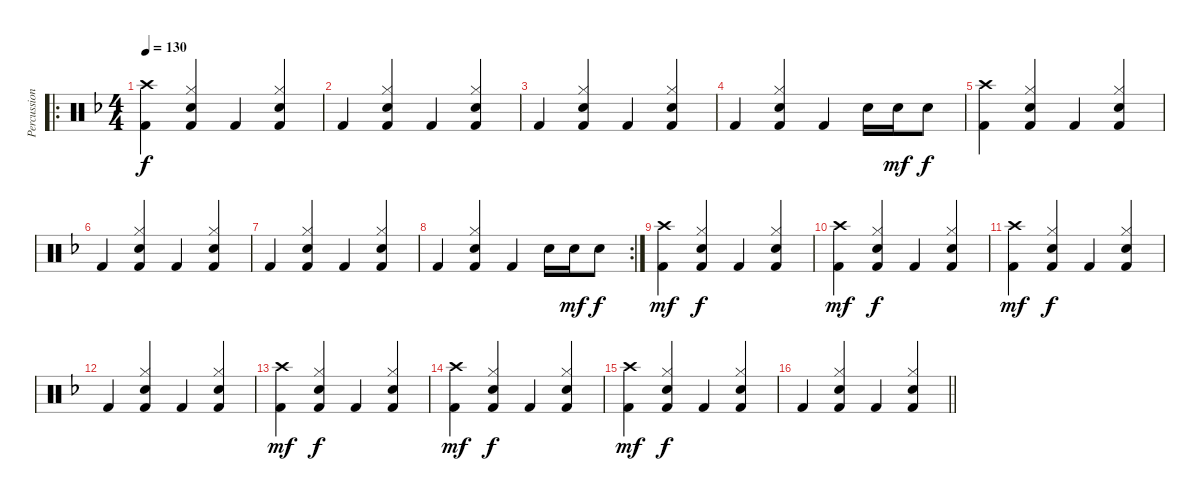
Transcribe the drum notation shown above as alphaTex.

\track ("Percussion" "Percussion") {instrument percussion}
\staff {score}
\articulation defaults
\ro
\ts (4 4)
\tempo 130
\clef neutral
\ks f
("Crash high (hit)" "Kick (hit) 2").4{dy f} ("Hi-Hat (closed)" "Snare (hit) 2" "Kick (hit) 2").4 "Kick (hit) 2".4 ("Hi-Hat (closed)" "Snare (hit) 2" "Kick (hit) 2").4 |
"Kick (hit) 2".4 ("Hi-Hat (closed)" "Snare (hit) 2" "Kick (hit) 2").4 "Kick (hit) 2".4 ("Hi-Hat (closed)" "Snare (hit) 2" "Kick (hit) 2").4 |
"Kick (hit) 2".4 ("Hi-Hat (closed)" "Snare (hit) 2" "Kick (hit) 2").4 "Kick (hit) 2".4 ("Hi-Hat (closed)" "Snare (hit) 2" "Kick (hit) 2").4 |
"Kick (hit) 2".4 ("Hi-Hat (closed)" "Snare (hit) 2" "Kick (hit) 2").4 "Kick (hit) 2".4 "Snare (hit) 2".16 "Snare (hit) 2".16{dy mf} "Snare (hit) 2".8{dy f} |
("Crash high (hit)" "Kick (hit) 2").4 ("Hi-Hat (closed)" "Snare (hit) 2" "Kick (hit) 2").4 "Kick (hit) 2".4 ("Hi-Hat (closed)" "Snare (hit) 2" "Kick (hit) 2").4 |
"Kick (hit) 2".4 ("Hi-Hat (closed)" "Snare (hit) 2" "Kick (hit) 2").4 "Kick (hit) 2".4 ("Hi-Hat (closed)" "Snare (hit) 2" "Kick (hit) 2").4 |
"Kick (hit) 2".4 ("Hi-Hat (closed)" "Snare (hit) 2" "Kick (hit) 2").4 "Kick (hit) 2".4 ("Hi-Hat (closed)" "Snare (hit) 2" "Kick (hit) 2").4 |
\rc 2 "Kick (hit) 2".4
("Hi-Hat (closed)" "Snare (hit) 2" "Kick (hit) 2").4 "Kick (hit) 2".4 "Snare (hit) 2".16 "Snare (hit) 2".16{dy mf} "Snare (hit) 2".8{dy f} |
("Crash high (hit)" "Kick (hit) 2").4{dy mf} ("Hi-Hat (closed)" "Snare (hit) 2" "Kick (hit) 2").4{dy f} "Kick (hit) 2".4 ("Hi-Hat (closed)" "Snare (hit) 2" "Kick (hit) 2").4 |
("Crash high (hit)" "Kick (hit) 2").4{dy mf} ("Hi-Hat (closed)" "Snare (hit) 2" "Kick (hit) 2").4{dy f} "Kick (hit) 2".4 ("Hi-Hat (closed)" "Snare (hit) 2" "Kick (hit) 2").4 |
("Crash high (hit)" "Kick (hit) 2").4{dy mf} ("Hi-Hat (closed)" "Snare (hit) 2" "Kick (hit) 2").4{dy f} "Kick (hit) 2".4 ("Hi-Hat (closed)" "Snare (hit) 2" "Kick (hit) 2").4 |
"Kick (hit) 2".4 ("Hi-Hat (closed)" "Snare (hit) 2" "Kick (hit) 2").4 "Kick (hit) 2".4 ("Hi-Hat (closed)" "Snare (hit) 2" "Kick (hit) 2").4 |
("Crash high (hit)" "Kick (hit) 2").4{dy mf} ("Hi-Hat (closed)" "Snare (hit) 2" "Kick (hit) 2").4{dy f} "Kick (hit) 2".4 ("Hi-Hat (closed)" "Snare (hit) 2" "Kick (hit) 2").4 |
("Crash high (hit)" "Kick (hit) 2").4{dy mf} ("Hi-Hat (closed)" "Snare (hit) 2" "Kick (hit) 2").4{dy f} "Kick (hit) 2".4 ("Hi-Hat (closed)" "Snare (hit) 2" "Kick (hit) 2").4 |
("Crash high (hit)" "Kick (hit) 2").4{dy mf} ("Hi-Hat (closed)" "Snare (hit) 2" "Kick (hit) 2").4{dy f} "Kick (hit) 2".4 ("Hi-Hat (closed)" "Snare (hit) 2" "Kick (hit) 2").4 |
\barLineRight lightlight "Kick (hit) 2".4
("Hi-Hat (closed)" "Snare (hit) 2" "Kick (hit) 2").4 "Kick (hit) 2".4 ("Hi-Hat (closed)" "Snare (hit) 2" "Kick (hit) 2").4
